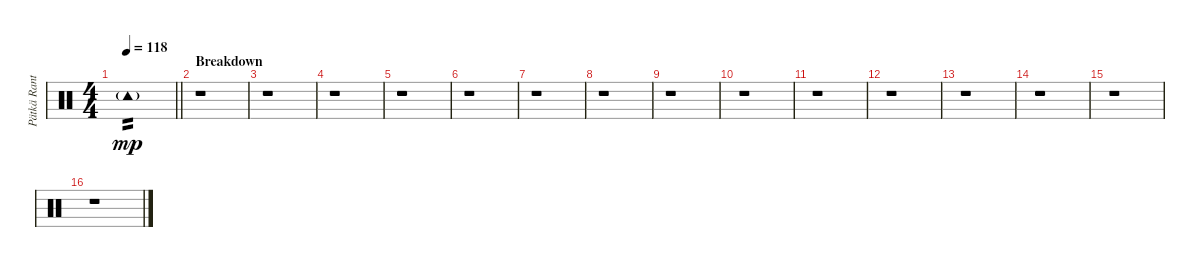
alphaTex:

\track ("Pätkä Rantala (Drums)" "Pätkä Rant") {instrument percussion}
\staff {score}
\articulation defaults
\ts (4 4)
\tempo 118
\clef neutral
\barLineRight lightlight
\ks c "Tambourine (hit)"{g}.1{tp 2 dy mp}
|
\section ("" "Breakdown")
r.1 |
r.1 |
r.1 |
r.1 |
r.1 |
r.1 |
r.1 |
r.1 |
r.1 |
r.1 |
r.1 |
r.1 |
r.1 |
r.1 |
r.1
